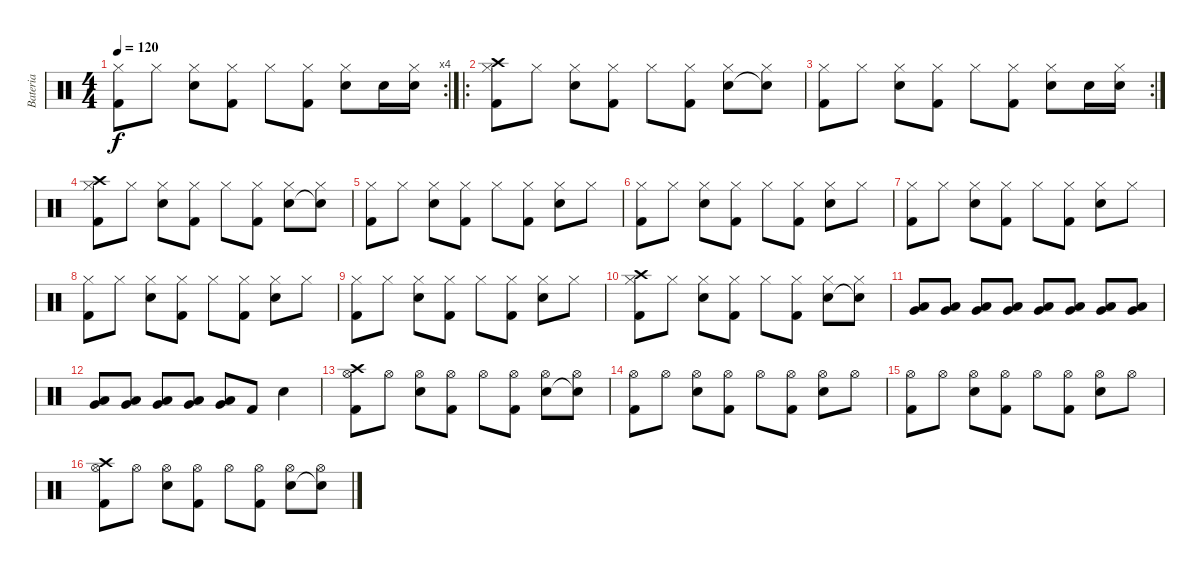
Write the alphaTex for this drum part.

\track ("Bateria" "Bateria") {instrument percussion}
\staff {score}
\articulation defaults
\rc 4
\ts (4 4)
\tempo 120
\clef neutral
\ks c
("Hi-Hat (closed)" "Kick (hit) 2").8{dy f} "Hi-Hat (closed)".8 ("Hi-Hat (closed)" "Snare (hit) 2").8 ("Hi-Hat (closed)" "Kick (hit) 2").8 "Hi-Hat (closed)".8 ("Hi-Hat (closed)" "Kick (hit) 2").8 ("Hi-Hat (closed)" "Snare (hit) 2").8 "Snare (hit) 2".16 ("Hi-Hat (closed)" "Snare (hit) 2").16 |
\ro
("Hi-Hat (closed)" "Crash high (hit)" "Kick (hit) 2").8 "Hi-Hat (closed)".8 ("Hi-Hat (closed)" "Snare (hit) 2").8 ("Hi-Hat (closed)" "Kick (hit) 2").8 "Hi-Hat (closed)".8 ("Hi-Hat (closed)" "Kick (hit) 2").8 ("Hi-Hat (closed)" "Snare (hit) 2").8 ("Hi-Hat (closed)" "Snare (hit)"{t}).8 |
\rc 2
("Hi-Hat (closed)" "Kick (hit) 2").8 "Hi-Hat (closed)".8 ("Hi-Hat (closed)" "Snare (hit) 2").8 ("Hi-Hat (closed)" "Kick (hit) 2").8 "Hi-Hat (closed)".8 ("Hi-Hat (closed)" "Kick (hit) 2").8 ("Hi-Hat (closed)" "Snare (hit) 2").8 "Snare (hit) 2".16 ("Hi-Hat (closed)" "Snare (hit) 2").16 |
("Hi-Hat (closed)" "Crash high (hit)" "Kick (hit) 2").8 "Hi-Hat (closed)".8 ("Hi-Hat (closed)" "Snare (hit) 2").8 ("Hi-Hat (closed)" "Kick (hit) 2").8 "Hi-Hat (closed)".8 ("Hi-Hat (closed)" "Kick (hit) 2").8 ("Hi-Hat (closed)" "Snare (hit) 2").8 ("Hi-Hat (closed)" "Snare (hit)"{t}).8 |
("Hi-Hat (closed)" "Kick (hit) 2").8 "Hi-Hat (closed)".8 ("Hi-Hat (closed)" "Snare (hit) 2").8 ("Hi-Hat (closed)" "Kick (hit) 2").8 "Hi-Hat (closed)".8 ("Hi-Hat (closed)" "Kick (hit) 2").8 ("Hi-Hat (closed)" "Snare (hit) 2").8 "Hi-Hat (closed)".8 |
("Hi-Hat (closed)" "Kick (hit) 2").8 "Hi-Hat (closed)".8 ("Hi-Hat (closed)" "Snare (hit) 2").8 ("Hi-Hat (closed)" "Kick (hit) 2").8 "Hi-Hat (closed)".8 ("Hi-Hat (closed)" "Kick (hit) 2").8 ("Hi-Hat (closed)" "Snare (hit) 2").8 "Hi-Hat (closed)".8 |
("Hi-Hat (closed)" "Kick (hit) 2").8 "Hi-Hat (closed)".8 ("Hi-Hat (closed)" "Snare (hit) 2").8 ("Hi-Hat (closed)" "Kick (hit) 2").8 "Hi-Hat (closed)".8 ("Hi-Hat (closed)" "Kick (hit) 2").8 ("Hi-Hat (closed)" "Snare (hit) 2").8 "Hi-Hat (closed)".8 |
("Hi-Hat (closed)" "Kick (hit) 2").8 "Hi-Hat (closed)".8 ("Hi-Hat (closed)" "Snare (hit) 2").8 ("Hi-Hat (closed)" "Kick (hit) 2").8 "Hi-Hat (closed)".8 ("Hi-Hat (closed)" "Kick (hit) 2").8 ("Hi-Hat (closed)" "Snare (hit) 2").8 "Hi-Hat (closed)".8 |
("Hi-Hat (closed)" "Kick (hit) 2").8 "Hi-Hat (closed)".8 ("Hi-Hat (closed)" "Snare (hit) 2").8 ("Hi-Hat (closed)" "Kick (hit) 2").8 "Hi-Hat (closed)".8 ("Hi-Hat (closed)" "Kick (hit) 2").8 ("Hi-Hat (closed)" "Snare (hit) 2").8 "Hi-Hat (closed)".8 |
("Hi-Hat (closed)" "Crash high (hit)" "Kick (hit) 2").8 "Hi-Hat (closed)".8 ("Hi-Hat (closed)" "Snare (hit) 2").8 ("Hi-Hat (closed)" "Kick (hit) 2").8 "Hi-Hat (closed)".8 ("Hi-Hat (closed)" "Kick (hit) 2").8 ("Hi-Hat (closed)" "Snare (hit) 2").8 ("Hi-Hat (closed)" "Snare (hit)"{t}).8{volume 5} |
("Very Low Tom (hit)" "Low Tom (hit)").8{volume 13} ("Very Low Tom (hit)" "Low Tom (hit)").8 ("Very Low Tom (hit)" "Low Tom (hit)").8 ("Very Low Tom (hit)" "Low Tom (hit)").8 ("Very Low Tom (hit)" "Low Tom (hit)").8 ("Very Low Tom (hit)" "Low Tom (hit)").8 ("Very Low Tom (hit)" "Low Tom (hit)").8 ("Very Low Tom (hit)" "Low Tom (hit)").8 |
("Very Low Tom (hit)" "Low Tom (hit)").8 ("Very Low Tom (hit)" "Low Tom (hit)").8 ("Very Low Tom (hit)" "Low Tom (hit)").8 ("Very Low Tom (hit)" "Low Tom (hit)").8 ("Very Low Tom (hit)" "Low Tom (hit)").8 "Kick (hit) 2".8 "Snare (hit) 2".4 |
("Hi-Hat (open)" "Crash high (hit)" "Kick (hit) 2").8 "Hi-Hat (open)".8 ("Hi-Hat (open)" "Snare (hit) 2").8 ("Hi-Hat (open)" "Kick (hit) 2").8 "Hi-Hat (open)".8 ("Hi-Hat (open)" "Kick (hit) 2").8 ("Hi-Hat (open)" "Snare (hit) 2").8 ("Hi-Hat (open)" "Snare (hit)"{t}).8 |
("Hi-Hat (open)" "Kick (hit) 2").8 "Hi-Hat (open)".8 ("Hi-Hat (open)" "Snare (hit) 2").8 ("Hi-Hat (open)" "Kick (hit) 2").8 "Hi-Hat (open)".8 ("Hi-Hat (open)" "Kick (hit) 2").8 ("Hi-Hat (open)" "Snare (hit) 2").8 "Hi-Hat (open)".8 |
("Hi-Hat (open)" "Kick (hit) 2").8 "Hi-Hat (open)".8 ("Hi-Hat (open)" "Snare (hit) 2").8 ("Hi-Hat (open)" "Kick (hit) 2").8 "Hi-Hat (open)".8 ("Hi-Hat (open)" "Kick (hit) 2").8 ("Hi-Hat (open)" "Snare (hit) 2").8 "Hi-Hat (open)".8 |
("Hi-Hat (open)" "Crash high (hit)" "Kick (hit) 2").8 "Hi-Hat (open)".8 ("Hi-Hat (open)" "Snare (hit) 2").8 ("Hi-Hat (open)" "Kick (hit) 2").8 "Hi-Hat (open)".8 ("Hi-Hat (open)" "Kick (hit) 2").8 ("Hi-Hat (open)" "Snare (hit) 2").8 ("Hi-Hat (open)" "Snare (hit)"{t}).8
